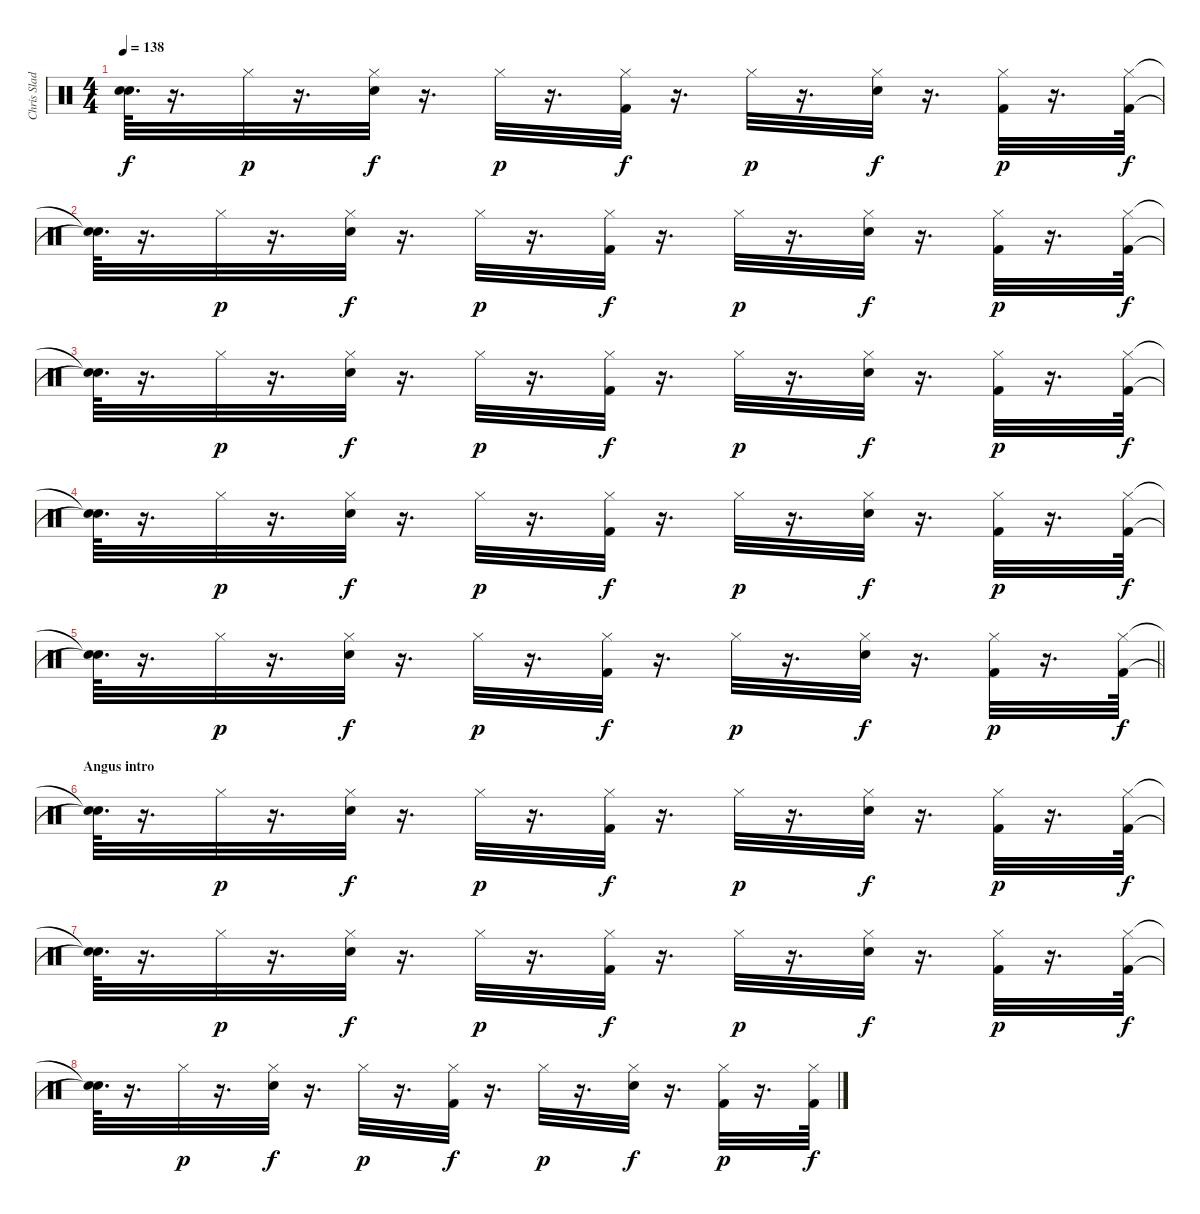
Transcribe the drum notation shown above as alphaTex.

\track ("Chris Slade" "Chris Slad") {instrument percussion}
\staff {score}
\articulation defaults
\ts (4 4)
\tempo 138
\clef neutral
\ks c
("Snare (hit)"{t} "Snare (hit)"{t}).64{d dy f} r.16{d} "Hi-Hat (closed)".32{dy p} r.16{d} ("Hi-Hat (closed)" "Electric Snare (hit)").32{dy f} r.16{d} "Hi-Hat (closed)".32{dy p} r.16{d} ("Hi-Hat (closed)" "Kick (hit) 2").32{dy f} r.16{d} "Hi-Hat (closed)".32{dy p} r.16{d} ("Hi-Hat (closed)" "Electric Snare (hit)").32{dy f} r.16{d} ("Hi-Hat (closed)" "Kick (hit) 2").32{dy p} r.16{d} ("Hi-Hat (closed)" "Kick (hit) 2").64{dy f} |
("Snare (hit)"{t} "Snare (hit)"{t}).64{d} r.16{d} "Hi-Hat (closed)".32{dy p} r.16{d} ("Hi-Hat (closed)" "Electric Snare (hit)").32{dy f} r.16{d} "Hi-Hat (closed)".32{dy p} r.16{d} ("Hi-Hat (closed)" "Kick (hit) 2").32{dy f} r.16{d} "Hi-Hat (closed)".32{dy p} r.16{d} ("Hi-Hat (closed)" "Electric Snare (hit)").32{dy f} r.16{d} ("Hi-Hat (closed)" "Kick (hit) 2").32{dy p} r.16{d} ("Hi-Hat (closed)" "Kick (hit) 2").64{dy f} |
("Snare (hit)"{t} "Snare (hit)"{t}).64{d} r.16{d} "Hi-Hat (closed)".32{dy p} r.16{d} ("Hi-Hat (closed)" "Electric Snare (hit)").32{dy f} r.16{d} "Hi-Hat (closed)".32{dy p} r.16{d} ("Hi-Hat (closed)" "Kick (hit) 2").32{dy f} r.16{d} "Hi-Hat (closed)".32{dy p} r.16{d} ("Hi-Hat (closed)" "Electric Snare (hit)").32{dy f} r.16{d} ("Hi-Hat (closed)" "Kick (hit) 2").32{dy p} r.16{d} ("Hi-Hat (closed)" "Kick (hit) 2").64{dy f} |
("Snare (hit)"{t} "Snare (hit)"{t}).64{d} r.16{d} "Hi-Hat (closed)".32{dy p} r.16{d} ("Hi-Hat (closed)" "Electric Snare (hit)").32{dy f} r.16{d} "Hi-Hat (closed)".32{dy p} r.16{d} ("Hi-Hat (closed)" "Kick (hit) 2").32{dy f} r.16{d} "Hi-Hat (closed)".32{dy p} r.16{d} ("Hi-Hat (closed)" "Electric Snare (hit)").32{dy f} r.16{d} ("Hi-Hat (closed)" "Kick (hit) 2").32{dy p} r.16{d} ("Hi-Hat (closed)" "Kick (hit) 2").64{dy f} |
\barLineRight lightlight
("Snare (hit)"{t} "Snare (hit)"{t}).64{d} r.16{d} "Hi-Hat (closed)".32{dy p} r.16{d} ("Hi-Hat (closed)" "Electric Snare (hit)").32{dy f} r.16{d} "Hi-Hat (closed)".32{dy p} r.16{d} ("Hi-Hat (closed)" "Kick (hit) 2").32{dy f} r.16{d} "Hi-Hat (closed)".32{dy p} r.16{d} ("Hi-Hat (closed)" "Electric Snare (hit)").32{dy f} r.16{d} ("Hi-Hat (closed)" "Kick (hit) 2").32{dy p} r.16{d} ("Hi-Hat (closed)" "Kick (hit) 2").64{dy f} |
\section ("" "Angus intro")
("Snare (hit)"{t} "Snare (hit)"{t}).64{d} r.16{d} "Hi-Hat (closed)".32{dy p} r.16{d} ("Hi-Hat (closed)" "Electric Snare (hit)").32{dy f} r.16{d} "Hi-Hat (closed)".32{dy p} r.16{d} ("Hi-Hat (closed)" "Kick (hit) 2").32{dy f} r.16{d} "Hi-Hat (closed)".32{dy p} r.16{d} ("Hi-Hat (closed)" "Electric Snare (hit)").32{dy f} r.16{d} ("Hi-Hat (closed)" "Kick (hit) 2").32{dy p} r.16{d} ("Hi-Hat (closed)" "Kick (hit) 2").64{dy f} |
("Snare (hit)"{t} "Snare (hit)"{t}).64{d} r.16{d} "Hi-Hat (closed)".32{dy p} r.16{d} ("Hi-Hat (closed)" "Electric Snare (hit)").32{dy f} r.16{d} "Hi-Hat (closed)".32{dy p} r.16{d} ("Hi-Hat (closed)" "Kick (hit) 2").32{dy f} r.16{d} "Hi-Hat (closed)".32{dy p} r.16{d} ("Hi-Hat (closed)" "Electric Snare (hit)").32{dy f} r.16{d} ("Hi-Hat (closed)" "Kick (hit) 2").32{dy p} r.16{d} ("Hi-Hat (closed)" "Kick (hit) 2").64{dy f} |
("Snare (hit)"{t} "Snare (hit)"{t}).64{d} r.16{d} "Hi-Hat (closed)".32{dy p} r.16{d} ("Hi-Hat (closed)" "Electric Snare (hit)").32{dy f} r.16{d} "Hi-Hat (closed)".32{dy p} r.16{d} ("Hi-Hat (closed)" "Kick (hit) 2").32{dy f} r.16{d} "Hi-Hat (closed)".32{dy p} r.16{d} ("Hi-Hat (closed)" "Electric Snare (hit)").32{dy f} r.16{d} ("Hi-Hat (closed)" "Kick (hit) 2").32{dy p} r.16{d} ("Hi-Hat (closed)" "Kick (hit) 2").64{dy f}
